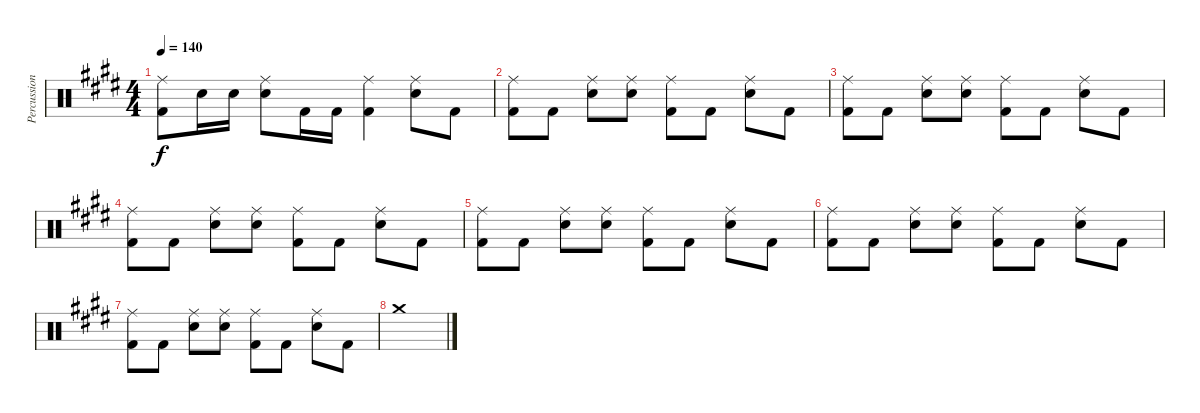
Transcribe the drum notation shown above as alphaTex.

\track ("Percussion" "Percussion") {instrument percussion}
\staff {score}
\articulation defaults
\ts (4 4)
\tempo 140
\clef neutral
\ks c#minor
("Kick (hit) 2" "Ride (middle)").8{dy f} "Electric Snare (hit)".16 "Electric Snare (hit)".16 ("Electric Snare (hit)" "Ride (middle)").8 "Kick (hit) 2".16 "Kick (hit) 2".16 ("Kick (hit) 2" "Ride (middle)").4 ("Electric Snare (hit)" "Ride (middle)").8 "Kick (hit) 2".8 |
("Kick (hit) 2" "Ride (middle)").8 "Kick (hit) 2".8 ("Ride (middle)" "Electric Snare (hit)").8 ("Ride (middle)" "Electric Snare (hit)").8 ("Kick (hit) 2" "Ride (middle)").8 "Kick (hit) 2".8 ("Ride (middle)" "Electric Snare (hit)").8 "Kick (hit) 2".8 |
("Kick (hit) 2" "Ride (middle)").8 "Kick (hit) 2".8 ("Ride (middle)" "Electric Snare (hit)").8 ("Ride (middle)" "Electric Snare (hit)").8 ("Kick (hit) 2" "Ride (middle)").8 "Kick (hit) 2".8 ("Ride (middle)" "Electric Snare (hit)").8 "Kick (hit) 2".8 |
("Kick (hit) 2" "Ride (middle)").8 "Kick (hit) 2".8 ("Ride (middle)" "Electric Snare (hit)").8 ("Ride (middle)" "Electric Snare (hit)").8 ("Kick (hit) 2" "Ride (middle)").8 "Kick (hit) 2".8 ("Ride (middle)" "Electric Snare (hit)").8 "Kick (hit) 2".8 |
("Kick (hit) 2" "Ride (middle)").8 "Kick (hit) 2".8 ("Ride (middle)" "Electric Snare (hit)").8 ("Ride (middle)" "Electric Snare (hit)").8 ("Kick (hit) 2" "Ride (middle)").8 "Kick (hit) 2".8 ("Ride (middle)" "Electric Snare (hit)").8 "Kick (hit) 2".8 |
("Kick (hit) 2" "Ride (middle)").8 "Kick (hit) 2".8 ("Ride (middle)" "Electric Snare (hit)").8 ("Ride (middle)" "Electric Snare (hit)").8 ("Kick (hit) 2" "Ride (middle)").8 "Kick (hit) 2".8 ("Ride (middle)" "Electric Snare (hit)").8 "Kick (hit) 2".8 |
("Kick (hit) 2" "Ride (middle)").8 "Kick (hit) 2".8 ("Ride (middle)" "Electric Snare (hit)").8 ("Ride (middle)" "Electric Snare (hit)").8 ("Kick (hit) 2" "Ride (middle)").8 "Kick (hit) 2".8 ("Ride (middle)" "Electric Snare (hit)").8 "Kick (hit) 2".8 |
"Crash medium (hit)".1
